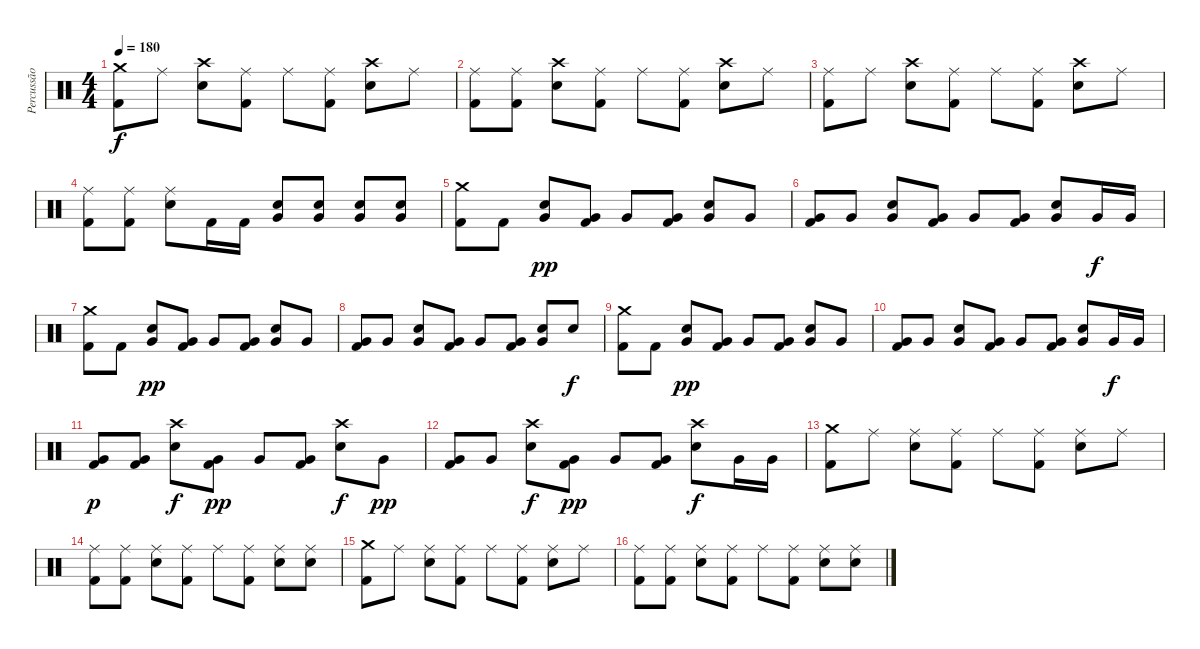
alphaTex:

\track ("Percussão" "Percussão") {instrument percussion}
\staff {score}
\articulation defaults
\ts (4 4)
\tempo 180
\clef neutral
\ks c
("Crash medium (hit)" "Kick (hit) 2").8{dy f} "Ride (middle)".8 ("Crash high (hit)" "Electric Snare (hit)").8 ("Ride (middle)" "Kick (hit) 2").8 "Ride (middle)".8 ("Ride (middle)" "Kick (hit) 2").8 ("Crash high (hit)" "Electric Snare (hit)").8 "Ride (middle)".8 |
("Ride (middle)" "Kick (hit) 2").8 ("Ride (middle)" "Kick (hit) 2").8 ("Crash high (hit)" "Electric Snare (hit)").8 ("Ride (middle)" "Kick (hit) 2").8 "Ride (middle)".8 ("Ride (middle)" "Kick (hit) 2").8 ("Crash high (hit)" "Electric Snare (hit)").8 "Ride (middle)".8 |
("Ride (middle)" "Kick (hit) 2").8 "Ride (middle)".8 ("Crash high (hit)" "Electric Snare (hit)").8 ("Ride (middle)" "Kick (hit) 2").8 "Ride (middle)".8 ("Ride (middle)" "Kick (hit) 2").8 ("Crash high (hit)" "Electric Snare (hit)").8 "Ride (middle)".8 |
("Ride (middle)" "Kick (hit) 2").8 ("Ride (middle)" "Kick (hit) 2").8 ("Ride (middle)" "Electric Snare (hit)").8 "Kick (hit) 2".16 "Kick (hit) 2".16 ("Electric Snare (hit)" "Very Low Tom (hit)").8 ("Electric Snare (hit)" "Very Low Tom (hit)").8 ("Electric Snare (hit)" "Very Low Tom (hit)").8 ("Electric Snare (hit)" "Very Low Tom (hit)").8 |
("Crash medium (hit)" "Kick (hit) 2").8 "Kick (hit) 2".8 ("Very Low Tom (hit)" "Electric Snare (hit)").8{dy pp} ("Very Low Tom (hit)" "Kick (hit) 2").8 "Very Low Tom (hit)".8 ("Very Low Tom (hit)" "Kick (hit) 2").8 ("Very Low Tom (hit)" "Electric Snare (hit)").8 "Very Low Tom (hit)".8 |
("Very Low Tom (hit)" "Kick (hit) 2").8 "Very Low Tom (hit)".8 ("Very Low Tom (hit)" "Electric Snare (hit)").8 ("Very Low Tom (hit)" "Kick (hit) 2").8 "Very Low Tom (hit)".8 ("Very Low Tom (hit)" "Kick (hit) 2").8 ("Very Low Tom (hit)" "Electric Snare (hit)").8 "Very Low Tom (hit)".16{dy f} "Very Low Tom (hit)".16 |
("Crash medium (hit)" "Kick (hit) 2").8 "Kick (hit) 2".8 ("Very Low Tom (hit)" "Electric Snare (hit)").8{dy pp} ("Very Low Tom (hit)" "Kick (hit) 2").8 "Very Low Tom (hit)".8 ("Very Low Tom (hit)" "Kick (hit) 2").8 ("Very Low Tom (hit)" "Electric Snare (hit)").8 "Very Low Tom (hit)".8 |
("Very Low Tom (hit)" "Kick (hit) 2").8 "Very Low Tom (hit)".8 ("Very Low Tom (hit)" "Electric Snare (hit)").8 ("Very Low Tom (hit)" "Kick (hit) 2").8 "Very Low Tom (hit)".8 ("Very Low Tom (hit)" "Kick (hit) 2").8 ("Very Low Tom (hit)" "Electric Snare (hit)").8 "Electric Snare (hit)".8{dy f} |
("Crash medium (hit)" "Kick (hit) 2").8 "Kick (hit) 2".8 ("Very Low Tom (hit)" "Electric Snare (hit)").8{dy pp} ("Very Low Tom (hit)" "Kick (hit) 2").8 "Very Low Tom (hit)".8 ("Very Low Tom (hit)" "Kick (hit) 2").8 ("Very Low Tom (hit)" "Electric Snare (hit)").8 "Very Low Tom (hit)".8 |
("Very Low Tom (hit)" "Kick (hit) 2").8 "Very Low Tom (hit)".8 ("Very Low Tom (hit)" "Electric Snare (hit)").8 ("Very Low Tom (hit)" "Kick (hit) 2").8 "Very Low Tom (hit)".8 ("Very Low Tom (hit)" "Kick (hit) 2").8 ("Very Low Tom (hit)" "Electric Snare (hit)").8 "Very Low Tom (hit)".16{dy f} "Very Low Tom (hit)".16 |
("Very Low Tom (hit)" "Kick (hit) 2").8{dy p} ("Very Low Tom (hit)" "Kick (hit) 2").8 ("Crash high (hit)" "Electric Snare (hit)").8{dy f} ("Very Low Tom (hit)" "Kick (hit) 2").8{dy pp} "Very Low Tom (hit)".8 ("Very Low Tom (hit)" "Kick (hit) 2").8 ("Crash high (hit)" "Electric Snare (hit)").8{dy f} "Very Low Tom (hit)".8{dy pp} |
("Very Low Tom (hit)" "Kick (hit) 2").8 "Very Low Tom (hit)".8 ("Crash high (hit)" "Electric Snare (hit)").8{dy f} ("Very Low Tom (hit)" "Kick (hit) 2").8{dy pp} "Very Low Tom (hit)".8 ("Very Low Tom (hit)" "Kick (hit) 2").8 ("Crash high (hit)" "Electric Snare (hit)").8{dy f} "Very Low Tom (hit)".16 "Very Low Tom (hit)".16 |
("Crash medium (hit)" "Kick (hit) 2").8 "Ride (middle)".8 ("Ride (middle)" "Electric Snare (hit)").8 ("Ride (middle)" "Kick (hit) 2").8 "Ride (middle)".8 ("Ride (middle)" "Kick (hit) 2").8 ("Ride (middle)" "Electric Snare (hit)").8 "Ride (middle)".8 |
("Ride (middle)" "Kick (hit) 2").8 ("Ride (middle)" "Kick (hit) 2").8 ("Ride (middle)" "Electric Snare (hit)").8 ("Ride (middle)" "Kick (hit) 2").8 "Ride (middle)".8 ("Ride (middle)" "Kick (hit) 2").8 ("Ride (middle)" "Electric Snare (hit)").8 ("Ride (middle)" "Electric Snare (hit)").8 |
("Crash medium (hit)" "Kick (hit) 2").8 "Ride (middle)".8 ("Ride (middle)" "Electric Snare (hit)").8 ("Ride (middle)" "Kick (hit) 2").8 "Ride (middle)".8 ("Ride (middle)" "Kick (hit) 2").8 ("Ride (middle)" "Electric Snare (hit)").8 "Ride (middle)".8 |
("Ride (middle)" "Kick (hit) 2").8 ("Ride (middle)" "Kick (hit) 2").8 ("Ride (middle)" "Electric Snare (hit)").8 ("Ride (middle)" "Kick (hit) 2").8 "Ride (middle)".8 ("Ride (middle)" "Kick (hit) 2").8 ("Ride (middle)" "Electric Snare (hit)").8 ("Ride (middle)" "Electric Snare (hit)").8
